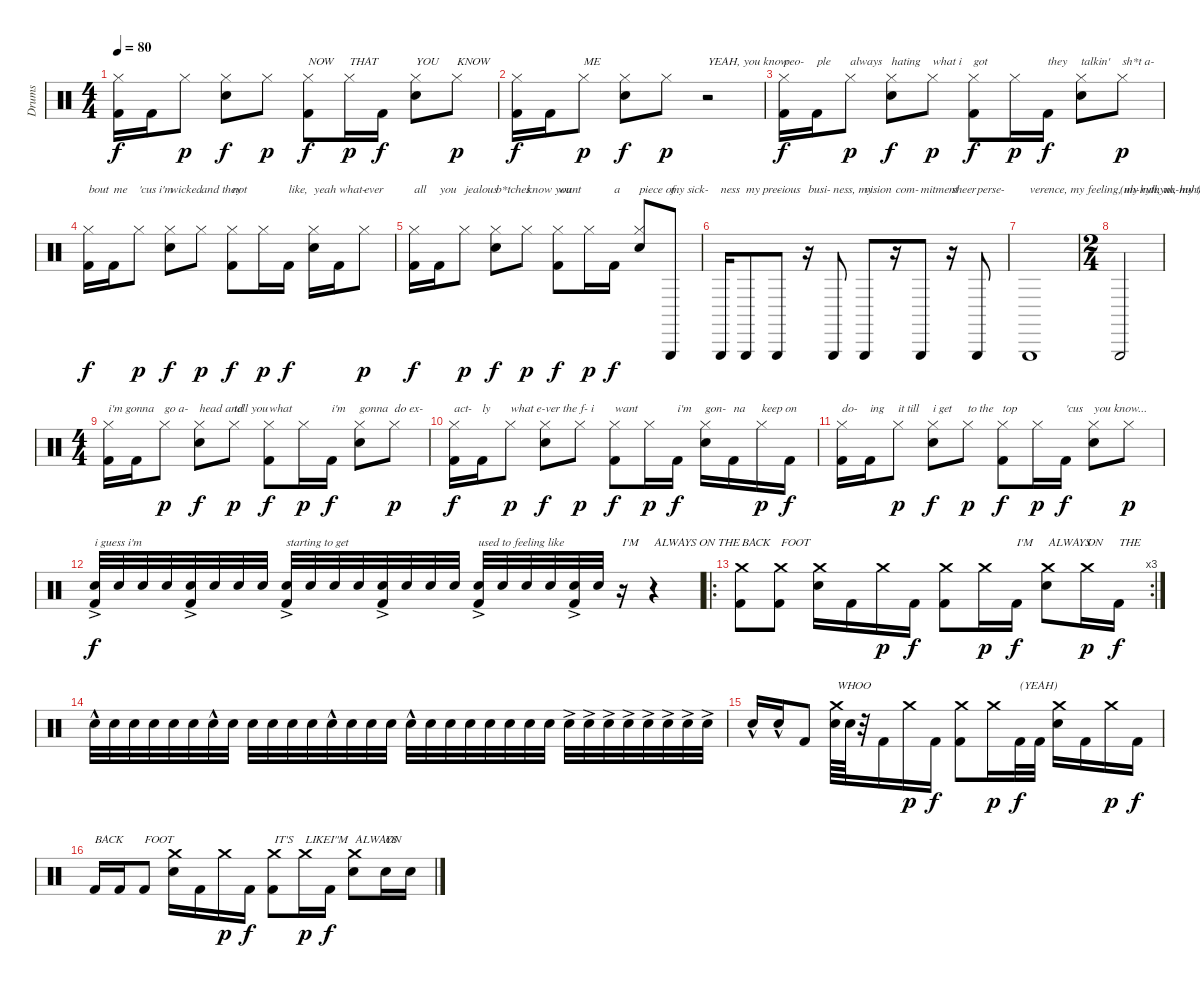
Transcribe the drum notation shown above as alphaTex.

\track ("Drums" "Drums") {instrument percussion}
\staff {score}
\articulation defaults
\ts (4 4)
\tempo 80
\clef neutral
\ks c
("Hi-Hat (closed)" "Kick (hit) 2").16{dy f} "Kick (hit) 2".16 "Hi-Hat (closed)".8{dy p} ("Hi-Hat (closed)" "Snare (hit) 2").8{dy f} "Hi-Hat (closed)".8{dy p} ("Hi-Hat (closed)" "Kick (hit) 2").8{txt "NOW" dy f} "Hi-Hat (closed)".16{txt "THAT" dy p} "Kick (hit) 2".16{dy f} ("Hi-Hat (closed)" "Snare (hit) 2").8{txt "YOU"} "Hi-Hat (closed)".8{txt "KNOW" dy p} |
("Hi-Hat (closed)" "Kick (hit) 2").16{dy f} "Kick (hit) 2".16 "Hi-Hat (closed)".8{txt "ME" dy p} ("Hi-Hat (closed)" "Snare (hit) 2").8{dy f} "Hi-Hat (closed)".8{dy p} r.2{txt "YEAH, you know"} |
("Hi-Hat (closed)" "Kick (hit) 2").16{txt "peo-" dy f} "Kick (hit) 2".16{txt "ple"} "Hi-Hat (closed)".8{txt "always" dy p} ("Hi-Hat (closed)" "Snare (hit) 2").8{txt "hating" dy f} "Hi-Hat (closed)".8{txt "what i" dy p} ("Hi-Hat (closed)" "Kick (hit) 2").8{txt "got" dy f} "Hi-Hat (closed)".16{dy p} "Kick (hit) 2".16{txt "they" dy f} ("Hi-Hat (closed)" "Snare (hit) 2").8{txt "talkin'"} "Hi-Hat (closed)".8{txt "sh*t a-" dy p} |
("Hi-Hat (closed)" "Kick (hit) 2").16{txt "bout" dy f} "Kick (hit) 2".16{txt "me"} "Hi-Hat (closed)".8{txt "'cus i'm" dy p} ("Hi-Hat (closed)" "Snare (hit) 2").8{txt "wicked" dy f} "Hi-Hat (closed)".8{txt "and they" dy p} ("Hi-Hat (closed)" "Kick (hit) 2").8{txt "not" dy f} "Hi-Hat (closed)".16{dy p} "Kick (hit) 2".16{txt "like," dy f} ("Hi-Hat (closed)" "Snare (hit) 2").16{txt "yeah"} "Kick (hit) 2".16{txt "what-"} "Hi-Hat (closed)".8{txt "ever" dy p} |
("Hi-Hat (closed)" "Kick (hit) 2").16{txt "all" dy f} "Kick (hit) 2".16{txt "you"} "Hi-Hat (closed)".8{txt "jealous" dy p} ("Hi-Hat (closed)" "Snare (hit) 2").8{txt "b*tches" dy f} "Hi-Hat (closed)".8{txt "know you" dy p} ("Hi-Hat (closed)" "Kick (hit) 2").8{txt "want" dy f} "Hi-Hat (closed)".16{dy p} "Kick (hit) 2".16{txt "a" dy f} ("Hi-Hat (closed)" "Snare (hit) 2").8{txt "piece of"} "Triangle (hit)".8{txt "my sick-"} |
"Triangle (hit)".16{txt "ness"} "Triangle (hit)".8{txt "my pre-"} "Triangle (hit)".8{txt "cious"} r.16{txt "busi-"} "Triangle (hit)".8{txt "ness, my"} "Triangle (hit)".8{txt "vision"} r.16{txt "com-"} "Triangle (hit)".8{txt "mitment"} r.16{txt "sheer"} "Triangle (hit)".8{txt "perse-"} |
"Triangle (hit)".1{txt "verence, my feeling, my rythym, my talent and what?"} |
\ts (2 4)
"Triangle (hit)".2{txt "(uh-huh, uh-huh)"} |
\ts (4 4)
("Hi-Hat (closed)" "Kick (hit) 2").16{txt "i'm gonna"} "Kick (hit) 2".16 "Hi-Hat (closed)".8{txt "go a-" dy p} ("Hi-Hat (closed)" "Snare (hit) 2").8{txt "head and" dy f} "Hi-Hat (closed)".8{txt "tell you" dy p} ("Hi-Hat (closed)" "Kick (hit) 2").8{txt "what" dy f} "Hi-Hat (closed)".16{dy p} "Kick (hit) 2".16{txt "i'm" dy f} ("Hi-Hat (closed)" "Snare (hit) 2").8{txt "gonna"} "Hi-Hat (closed)".8{txt "do ex-" dy p} |
("Hi-Hat (closed)" "Kick (hit) 2").16{txt "act-" dy f} "Kick (hit) 2".16{txt "ly"} "Hi-Hat (closed)".8{txt "what e-" dy p} ("Hi-Hat (closed)" "Snare (hit) 2").8{txt "ver the" dy f} "Hi-Hat (closed)".8{txt "f- i" dy p} ("Hi-Hat (closed)" "Kick (hit) 2").8{txt "want" dy f} "Hi-Hat (closed)".16{dy p} "Kick (hit) 2".16{txt "i'm" dy f} ("Hi-Hat (closed)" "Snare (hit) 2").16{txt "gon-"} "Kick (hit) 2".16{txt "na"} "Hi-Hat (closed)".16{txt "keep on" dy p} "Kick (hit) 2".16{dy f} |
("Hi-Hat (closed)" "Kick (hit) 2").16{txt "do-"} "Kick (hit) 2".16{txt "ing"} "Hi-Hat (closed)".8{txt "it till" dy p} ("Hi-Hat (closed)" "Snare (hit) 2").8{txt "i get" dy f} "Hi-Hat (closed)".8{txt "to the" dy p} ("Hi-Hat (closed)" "Kick (hit) 2").8{txt "top" dy f} "Hi-Hat (closed)".16{dy p} "Kick (hit) 2".16{txt "'cus" dy f} ("Hi-Hat (closed)" "Snare (hit) 2").8{txt "you know..."} "Hi-Hat (closed)".8{dy p} |
("Snare (hit) 2"{ac} "Kick (hit) 2").32{txt "i guess i'm" dy f} "Snare (hit) 2".32 "Snare (hit) 2".32 "Snare (hit) 2".32 ("Snare (hit) 2"{ac} "Kick (hit) 2").32 "Snare (hit) 2".32 "Snare (hit) 2".32 "Snare (hit) 2".32 ("Snare (hit) 2"{ac} "Kick (hit) 2").32{txt "starting to get"} "Snare (hit) 2".32 "Snare (hit) 2".32 "Snare (hit) 2".32 ("Snare (hit) 2"{ac} "Kick (hit) 2").32 "Snare (hit) 2".32 "Snare (hit) 2".32 "Snare (hit) 2".32 ("Snare (hit) 2"{ac} "Kick (hit) 2").32{txt "used to feeling like"} "Snare (hit) 2".32 "Snare (hit) 2".32 "Snare (hit) 2".32 ("Snare (hit) 2"{ac} "Kick (hit) 2").32 "Snare (hit) 2".32 r.16{txt "I'M"} r.4{txt "ALWAYS ON THE"} |
\ro
\rc 3
("Crash medium (hit)" "Kick (hit) 2").8{txt "BACK"} ("Crash medium (hit)" "Kick (hit) 2").8{txt "FOOT"} ("Crash medium (hit)" "Snare (hit) 2").16 "Kick (hit) 2".16 "Crash medium (hit)".16{dy p} "Kick (hit) 2".16{dy f} ("Crash medium (hit)" "Kick (hit) 2").8 "Crash medium (hit)".16{dy p} "Kick (hit) 2".16{txt "I'M" dy f} ("Crash medium (hit)" "Snare (hit) 2").8{txt "ALWAYS"} "Crash medium (hit)".16{txt "ON" dy p} "Kick (hit) 2".16{txt "THE" dy f} |
"Snare (hit) 2"{hac}.32 "Snare (hit) 2".32 "Snare (hit) 2".32 "Snare (hit) 2".32 "Snare (hit) 2".32 "Snare (hit) 2".32 "Snare (hit) 2"{hac}.32 "Snare (hit) 2".32 "Snare (hit) 2".32 "Snare (hit) 2".32 "Snare (hit) 2".32 "Snare (hit) 2".32 "Snare (hit) 2"{hac}.32 "Snare (hit) 2".32 "Snare (hit) 2".32 "Snare (hit) 2".32 "Snare (hit) 2"{hac}.32 "Snare (hit) 2".32 "Snare (hit) 2".32 "Snare (hit) 2".32 "Snare (hit) 2".32 "Snare (hit) 2".32 "Snare (hit) 2".32 "Snare (hit) 2".32 "Snare (hit) 2"{ac}.32 "Snare (hit) 2"{ac}.32 "Snare (hit) 2"{ac}.32 "Snare (hit) 2"{ac}.32 "Snare (hit) 2"{ac}.32 "Snare (hit) 2"{ac}.32 "Snare (hit) 2"{ac}.32 "Snare (hit) 2"{ac}.32 |
"Snare (hit) 2"{hac}.16 "Snare (hit) 2"{hac}.16 "Kick (hit) 2".8 ("Crash medium (hit)" "Snare (hit) 2").64{txt "WHOO"} "Snare (hit) 2".64 r.32 "Kick (hit) 2".16 "Crash medium (hit)".16{dy p} "Kick (hit) 2".16{dy f} ("Crash medium (hit)" "Kick (hit) 2").8 "Crash medium (hit)".16{dy p} "Kick (hit) 2".32{txt "(YEAH)" dy f} "Kick (hit) 2".32 ("Crash medium (hit)" "Snare (hit) 2").16 "Kick (hit) 2".16 "Crash medium (hit)".16{dy p} "Kick (hit) 2".16{dy f} |
"Kick (hit) 2".16{txt "BACK"} "Kick (hit) 2".16 "Kick (hit) 2".8{txt "FOOT"} ("Crash medium (hit)" "Snare (hit) 2").16 "Kick (hit) 2".16 "Crash medium (hit)".16{dy p} "Kick (hit) 2".16{dy f} ("Crash medium (hit)" "Kick (hit) 2").8{txt "IT'S"} "Crash medium (hit)".16{txt "LIKE" dy p} "Kick (hit) 2".16{txt "I\"M" dy f} ("Crash medium (hit)" "Snare (hit) 2").8{txt "ALWAYS"} "Snare (hit) 2".16{txt "ON"} "Snare (hit) 2".16
